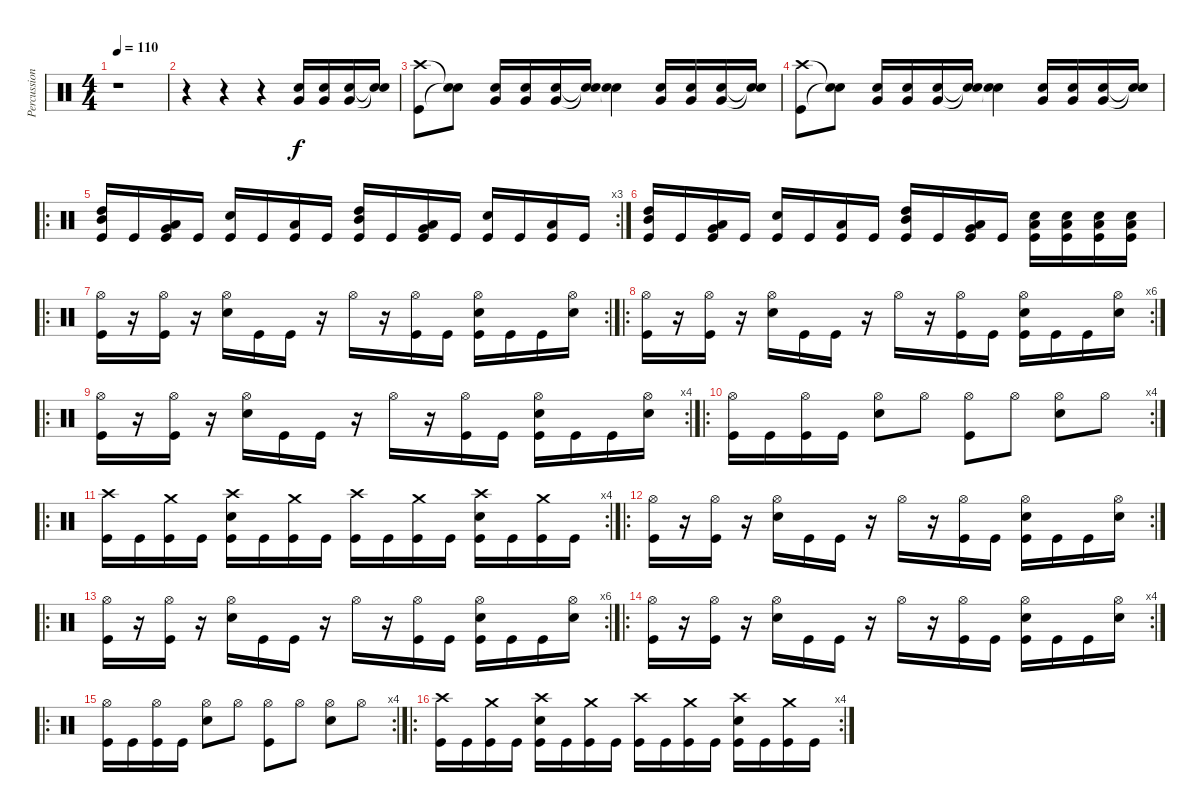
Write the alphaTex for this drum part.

\track ("Percussion" "Percussion") {instrument percussion}
\staff {score}
\articulation defaults
\ts (4 4)
\tempo 110
\clef neutral
\ks c
r.1{dy f} |
r.4 r.4 r.4 ("Electric Snare (hit)" "Very Low Tom (hit)").16 ("Electric Snare (hit)" "Very Low Tom (hit)").16 ("Electric Snare (hit)" "Very Low Tom (hit)").16 ("Snare (hit)"{t} "Snare (hit)"{t}).16 |
("Crash high (hit)" "Kick (hit)").8 ("Snare (hit)"{t} "Snare (hit)"{t}).8 ("Very Low Tom (hit)" "Electric Snare (hit)").16 ("Very Low Tom (hit)" "Electric Snare (hit)").16 ("Very Low Tom (hit)" "Electric Snare (hit)").16 ("Snare (hit)"{t} "Snare (hit)"{t}).16 ("Snare (hit)"{t} "Snare (hit)"{t}).4 ("Electric Snare (hit)" "Very Low Tom (hit)").16 ("Electric Snare (hit)" "Very Low Tom (hit)").16 ("Electric Snare (hit)" "Very Low Tom (hit)").16 ("Snare (hit)"{t} "Snare (hit)"{t}).16 |
("Crash high (hit)" "Kick (hit)").8 ("Snare (hit)"{t} "Snare (hit)"{t}).8 ("Very Low Tom (hit)" "Electric Snare (hit)").16 ("Very Low Tom (hit)" "Electric Snare (hit)").16 ("Very Low Tom (hit)" "Electric Snare (hit)").16 ("Snare (hit)"{t} "Snare (hit)"{t}).16 ("Snare (hit)"{t} "Snare (hit)"{t}).4 ("Electric Snare (hit)" "Very Low Tom (hit)").16 ("Electric Snare (hit)" "Very Low Tom (hit)").16 ("Electric Snare (hit)" "Very Low Tom (hit)").16 ("Snare (hit)"{t} "Snare (hit)"{t}).16 |
\ro
\rc 3
("High Tom (hit)" "Mid Tom (hit)" "Kick (hit)").16 "Kick (hit)".16 ("Low Tom (hit)" "Very Low Tom (hit)" "Kick (hit)").16 "Kick (hit)".16 ("Electric Snare (hit)" "Kick (hit)").16 "Kick (hit)".16 ("Low Floor Tom (hit)" "Kick (hit)").16 "Kick (hit)".16 ("High Tom (hit)" "Mid Tom (hit)" "Kick (hit)").16 "Kick (hit)".16 ("Low Tom (hit)" "Very Low Tom (hit)" "Kick (hit)").16 "Kick (hit)".16 ("Electric Snare (hit)" "Kick (hit)").16 "Kick (hit)".16 ("Low Floor Tom (hit)" "Kick (hit)").16 "Kick (hit)".16 |
("High Tom (hit)" "Mid Tom (hit)" "Kick (hit)").16 "Kick (hit)".16 ("Low Tom (hit)" "Very Low Tom (hit)" "Kick (hit)").16 "Kick (hit)".16 ("Electric Snare (hit)" "Kick (hit)").16 "Kick (hit)".16 ("Low Floor Tom (hit)" "Kick (hit)").16 "Kick (hit)".16 ("High Tom (hit)" "Mid Tom (hit)" "Kick (hit)").16 "Kick (hit)".16 ("Low Tom (hit)" "Very Low Tom (hit)" "Kick (hit)").16 "Kick (hit)".16 ("Low Floor Tom (hit)" "Electric Snare (hit)" "Kick (hit)").16 ("Low Floor Tom (hit)" "Electric Snare (hit)" "Kick (hit)").16 ("Low Floor Tom (hit)" "Electric Snare (hit)" "Kick (hit)").16 ("Low Floor Tom (hit)" "Electric Snare (hit)" "Kick (hit)").16 |
\ro
\rc 2
("Hi-Hat (open)" "Kick (hit)").16 r.16 ("Hi-Hat (open)" "Kick (hit)").16 r.16 ("Hi-Hat (open)" "Electric Snare (hit)").16 "Kick (hit)".16 "Kick (hit)".16 r.16 "Hi-Hat (open)".16 r.16 ("Hi-Hat (open)" "Kick (hit)").16 "Kick (hit)".16 ("Hi-Hat (open)" "Electric Snare (hit)" "Kick (hit)").16 "Kick (hit)".16 "Kick (hit)".16 ("Hi-Hat (open)" "Electric Snare (hit)").16 |
\ro
\rc 6
("Hi-Hat (open)" "Kick (hit)").16 r.16 ("Hi-Hat (open)" "Kick (hit)").16 r.16 ("Hi-Hat (open)" "Electric Snare (hit)").16 "Kick (hit)".16 "Kick (hit)".16 r.16 "Hi-Hat (open)".16 r.16 ("Hi-Hat (open)" "Kick (hit)").16 "Kick (hit)".16 ("Hi-Hat (open)" "Electric Snare (hit)" "Kick (hit)").16 "Kick (hit)".16 "Kick (hit)".16 ("Hi-Hat (open)" "Electric Snare (hit)").16 |
\ro
\rc 4
("Hi-Hat (open)" "Kick (hit)").16 r.16 ("Hi-Hat (open)" "Kick (hit)").16 r.16 ("Hi-Hat (open)" "Electric Snare (hit)").16 "Kick (hit)".16 "Kick (hit)".16 r.16 "Hi-Hat (open)".16 r.16 ("Hi-Hat (open)" "Kick (hit)").16 "Kick (hit)".16 ("Hi-Hat (open)" "Electric Snare (hit)" "Kick (hit)").16 "Kick (hit)".16 "Kick (hit)".16 ("Hi-Hat (open)" "Electric Snare (hit)").16 |
\ro
\rc 4
("Hi-Hat (open)" "Kick (hit)").16 "Kick (hit)".16 ("Hi-Hat (open)" "Kick (hit)").16 "Kick (hit)".16 ("Hi-Hat (open)" "Electric Snare (hit)").8 "Hi-Hat (open)".8 ("Hi-Hat (open)" "Kick (hit)").8 "Hi-Hat (open)".8 ("Hi-Hat (open)" "Electric Snare (hit)").8 "Hi-Hat (open)".8 |
\ro
\rc 4
("Crash high (hit)" "Kick (hit)").16 "Kick (hit)".16 ("Crash medium (hit)" "Kick (hit)").16 "Kick (hit)".16 ("Crash high (hit)" "Electric Snare (hit)" "Kick (hit)").16 "Kick (hit)".16 ("Crash medium (hit)" "Kick (hit)").16 "Kick (hit)".16 ("Crash high (hit)" "Kick (hit)").16 "Kick (hit)".16 ("Crash medium (hit)" "Kick (hit)").16 "Kick (hit)".16 ("Crash high (hit)" "Electric Snare (hit)" "Kick (hit)").16 "Kick (hit)".16 ("Crash medium (hit)" "Kick (hit)").16 "Kick (hit)".16 |
\ro
\rc 2
("Hi-Hat (open)" "Kick (hit)").16 r.16 ("Hi-Hat (open)" "Kick (hit)").16 r.16 ("Hi-Hat (open)" "Electric Snare (hit)").16 "Kick (hit)".16 "Kick (hit)".16 r.16 "Hi-Hat (open)".16 r.16 ("Hi-Hat (open)" "Kick (hit)").16 "Kick (hit)".16 ("Hi-Hat (open)" "Electric Snare (hit)" "Kick (hit)").16 "Kick (hit)".16 "Kick (hit)".16 ("Hi-Hat (open)" "Electric Snare (hit)").16 |
\ro
\rc 6
("Hi-Hat (open)" "Kick (hit)").16 r.16 ("Hi-Hat (open)" "Kick (hit)").16 r.16 ("Hi-Hat (open)" "Electric Snare (hit)").16 "Kick (hit)".16 "Kick (hit)".16 r.16 "Hi-Hat (open)".16 r.16 ("Hi-Hat (open)" "Kick (hit)").16 "Kick (hit)".16 ("Hi-Hat (open)" "Electric Snare (hit)" "Kick (hit)").16 "Kick (hit)".16 "Kick (hit)".16 ("Hi-Hat (open)" "Electric Snare (hit)").16 |
\ro
\rc 4
("Hi-Hat (open)" "Kick (hit)").16 r.16 ("Hi-Hat (open)" "Kick (hit)").16 r.16 ("Hi-Hat (open)" "Electric Snare (hit)").16 "Kick (hit)".16 "Kick (hit)".16 r.16 "Hi-Hat (open)".16 r.16 ("Hi-Hat (open)" "Kick (hit)").16 "Kick (hit)".16 ("Hi-Hat (open)" "Electric Snare (hit)" "Kick (hit)").16 "Kick (hit)".16 "Kick (hit)".16 ("Hi-Hat (open)" "Electric Snare (hit)").16 |
\ro
\rc 4
("Hi-Hat (open)" "Kick (hit)").16 "Kick (hit)".16 ("Hi-Hat (open)" "Kick (hit)").16 "Kick (hit)".16 ("Hi-Hat (open)" "Electric Snare (hit)").8 "Hi-Hat (open)".8 ("Hi-Hat (open)" "Kick (hit)").8 "Hi-Hat (open)".8 ("Hi-Hat (open)" "Electric Snare (hit)").8 "Hi-Hat (open)".8 |
\ro
\rc 4
("Crash high (hit)" "Kick (hit)").16 "Kick (hit)".16 ("Crash medium (hit)" "Kick (hit)").16 "Kick (hit)".16 ("Crash high (hit)" "Electric Snare (hit)" "Kick (hit)").16 "Kick (hit)".16 ("Crash medium (hit)" "Kick (hit)").16 "Kick (hit)".16 ("Crash high (hit)" "Kick (hit)").16 "Kick (hit)".16 ("Crash medium (hit)" "Kick (hit)").16 "Kick (hit)".16 ("Crash high (hit)" "Electric Snare (hit)" "Kick (hit)").16 "Kick (hit)".16 ("Crash medium (hit)" "Kick (hit)").16 "Kick (hit)".16
